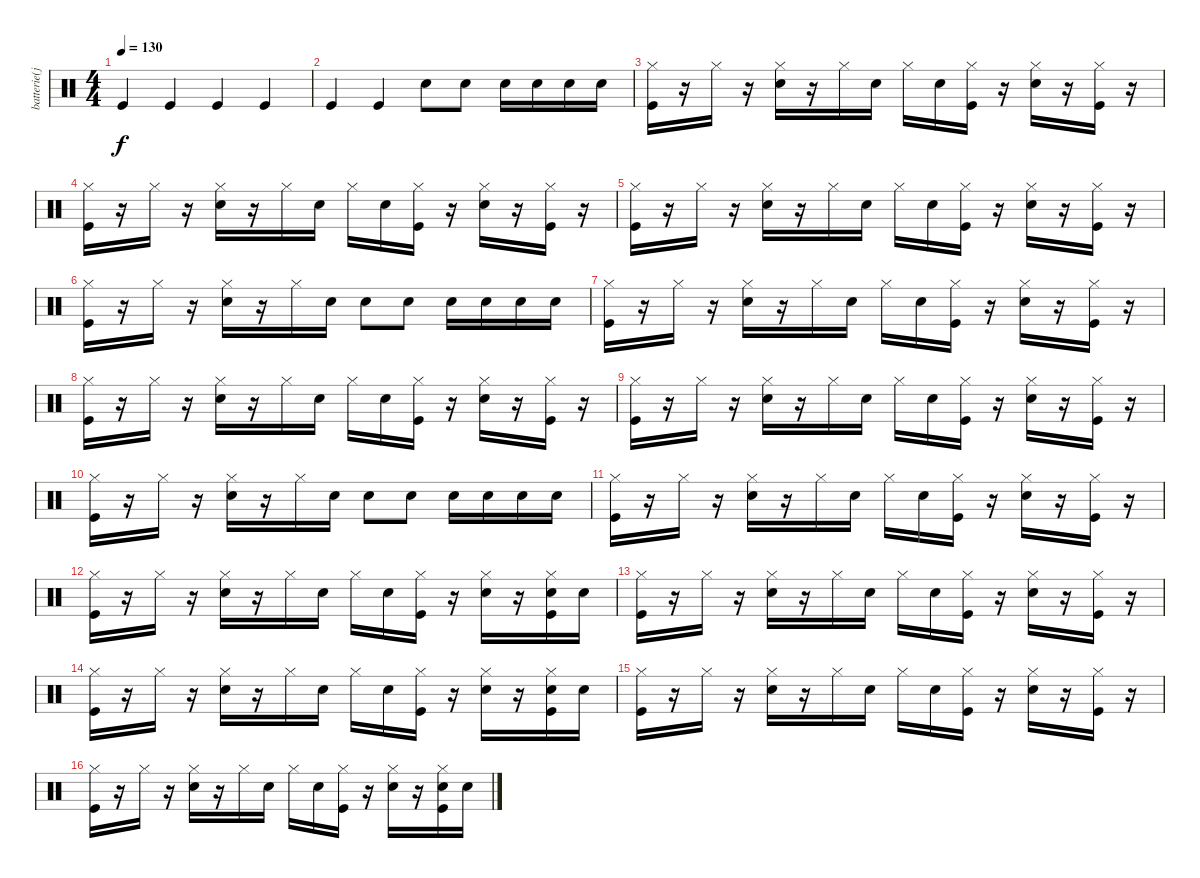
\track ("batterie(joost)" "batterie(j") {instrument percussion}
\staff {score}
\articulation defaults
\ts (4 4)
\tempo 130
\clef neutral
\ks c "Kick (hit)".4{dy f} "Kick (hit)".4 "Kick (hit)".4 "Kick (hit)".4
|
"Kick (hit)".4 "Kick (hit)".4 "Snare (hit) 2".8 "Snare (hit) 2".8 "Snare (hit) 2".16 "Snare (hit) 2".16 "Snare (hit) 2".16 "Snare (hit) 2".16 |
("Hi-Hat (closed)" "Kick (hit)").16 r.16 "Hi-Hat (closed)".16 r.16 ("Hi-Hat (closed)" "Snare (hit) 2").16 r.16 "Hi-Hat (closed)".16 "Snare (hit) 2".16 "Hi-Hat (closed)".16 "Snare (hit) 2".16 ("Hi-Hat (closed)" "Kick (hit)").16 r.16 ("Hi-Hat (closed)" "Snare (hit) 2").16 r.16 ("Hi-Hat (closed)" "Kick (hit)").16 r.16 |
("Hi-Hat (closed)" "Kick (hit)").16 r.16 "Hi-Hat (closed)".16 r.16 ("Hi-Hat (closed)" "Snare (hit) 2").16 r.16 "Hi-Hat (closed)".16 "Snare (hit) 2".16 "Hi-Hat (closed)".16 "Snare (hit) 2".16 ("Hi-Hat (closed)" "Kick (hit)").16 r.16 ("Hi-Hat (closed)" "Snare (hit) 2").16 r.16 ("Hi-Hat (closed)" "Kick (hit)").16 r.16 |
("Hi-Hat (closed)" "Kick (hit)").16 r.16 "Hi-Hat (closed)".16 r.16 ("Hi-Hat (closed)" "Snare (hit) 2").16 r.16 "Hi-Hat (closed)".16 "Snare (hit) 2".16 "Hi-Hat (closed)".16 "Snare (hit) 2".16 ("Hi-Hat (closed)" "Kick (hit)").16 r.16 ("Hi-Hat (closed)" "Snare (hit) 2").16 r.16 ("Hi-Hat (closed)" "Kick (hit)").16 r.16 |
("Hi-Hat (closed)" "Kick (hit)").16 r.16 "Hi-Hat (closed)".16 r.16 ("Hi-Hat (closed)" "Snare (hit) 2").16 r.16 "Hi-Hat (closed)".16 "Snare (hit) 2".16 "Snare (hit) 2".8 "Snare (hit) 2".8 "Snare (hit) 2".16 "Snare (hit) 2".16 "Snare (hit) 2".16 "Snare (hit) 2".16 |
("Hi-Hat (closed)" "Kick (hit)").16 r.16 "Hi-Hat (closed)".16 r.16 ("Hi-Hat (closed)" "Snare (hit) 2").16 r.16 "Hi-Hat (closed)".16 "Snare (hit) 2".16 "Hi-Hat (closed)".16 "Snare (hit) 2".16 ("Hi-Hat (closed)" "Kick (hit)").16 r.16 ("Hi-Hat (closed)" "Snare (hit) 2").16 r.16 ("Hi-Hat (closed)" "Kick (hit)").16 r.16 |
("Hi-Hat (closed)" "Kick (hit)").16 r.16 "Hi-Hat (closed)".16 r.16 ("Hi-Hat (closed)" "Snare (hit) 2").16 r.16 "Hi-Hat (closed)".16 "Snare (hit) 2".16 "Hi-Hat (closed)".16 "Snare (hit) 2".16 ("Hi-Hat (closed)" "Kick (hit)").16 r.16 ("Hi-Hat (closed)" "Snare (hit) 2").16 r.16 ("Hi-Hat (closed)" "Kick (hit)").16 r.16 |
("Hi-Hat (closed)" "Kick (hit)").16 r.16 "Hi-Hat (closed)".16 r.16 ("Hi-Hat (closed)" "Snare (hit) 2").16 r.16 "Hi-Hat (closed)".16 "Snare (hit) 2".16 "Hi-Hat (closed)".16 "Snare (hit) 2".16 ("Hi-Hat (closed)" "Kick (hit)").16 r.16 ("Hi-Hat (closed)" "Snare (hit) 2").16 r.16 ("Hi-Hat (closed)" "Kick (hit)").16 r.16 |
("Hi-Hat (closed)" "Kick (hit)").16 r.16 "Hi-Hat (closed)".16 r.16 ("Hi-Hat (closed)" "Snare (hit) 2").16 r.16 "Hi-Hat (closed)".16 "Snare (hit) 2".16 "Snare (hit) 2".8 "Snare (hit) 2".8 "Snare (hit) 2".16 "Snare (hit) 2".16 "Snare (hit) 2".16 "Snare (hit) 2".16 |
("Hi-Hat (closed)" "Kick (hit)").16 r.16 "Hi-Hat (closed)".16 r.16 ("Hi-Hat (closed)" "Snare (hit) 2").16 r.16 "Hi-Hat (closed)".16 "Snare (hit) 2".16 "Hi-Hat (closed)".16 "Snare (hit) 2".16 ("Hi-Hat (closed)" "Kick (hit)").16 r.16 ("Hi-Hat (closed)" "Snare (hit) 2").16 r.16 ("Hi-Hat (closed)" "Kick (hit)").16 r.16 |
("Hi-Hat (closed)" "Kick (hit)").16 r.16 "Hi-Hat (closed)".16 r.16 ("Hi-Hat (closed)" "Snare (hit) 2").16 r.16 "Hi-Hat (closed)".16 "Snare (hit) 2".16 "Hi-Hat (closed)".16 "Snare (hit) 2".16 ("Hi-Hat (closed)" "Kick (hit)").16 r.16 ("Hi-Hat (closed)" "Snare (hit) 2").16 r.16 ("Hi-Hat (closed)" "Snare (hit) 2" "Kick (hit)").16 "Snare (hit) 2".16 |
("Hi-Hat (closed)" "Kick (hit)").16 r.16 "Hi-Hat (closed)".16 r.16 ("Hi-Hat (closed)" "Snare (hit) 2").16 r.16 "Hi-Hat (closed)".16 "Snare (hit) 2".16 "Hi-Hat (closed)".16 "Snare (hit) 2".16 ("Hi-Hat (closed)" "Kick (hit)").16 r.16 ("Hi-Hat (closed)" "Snare (hit) 2").16 r.16 ("Hi-Hat (closed)" "Kick (hit)").16 r.16 |
("Hi-Hat (closed)" "Kick (hit)").16 r.16 "Hi-Hat (closed)".16 r.16 ("Hi-Hat (closed)" "Snare (hit) 2").16 r.16 "Hi-Hat (closed)".16 "Snare (hit) 2".16 "Hi-Hat (closed)".16 "Snare (hit) 2".16 ("Hi-Hat (closed)" "Kick (hit)").16 r.16 ("Hi-Hat (closed)" "Snare (hit) 2").16 r.16 ("Hi-Hat (closed)" "Snare (hit) 2" "Kick (hit)").16 "Snare (hit) 2".16 |
("Hi-Hat (closed)" "Kick (hit)").16 r.16 "Hi-Hat (closed)".16 r.16 ("Hi-Hat (closed)" "Snare (hit) 2").16 r.16 "Hi-Hat (closed)".16 "Snare (hit) 2".16 "Hi-Hat (closed)".16 "Snare (hit) 2".16 ("Hi-Hat (closed)" "Kick (hit)").16 r.16 ("Hi-Hat (closed)" "Snare (hit) 2").16 r.16 ("Hi-Hat (closed)" "Kick (hit)").16 r.16 |
("Hi-Hat (closed)" "Kick (hit)").16 r.16 "Hi-Hat (closed)".16 r.16 ("Hi-Hat (closed)" "Snare (hit) 2").16 r.16 "Hi-Hat (closed)".16 "Snare (hit) 2".16 "Hi-Hat (closed)".16 "Snare (hit) 2".16 ("Hi-Hat (closed)" "Kick (hit)").16 r.16 ("Hi-Hat (closed)" "Snare (hit) 2").16 r.16 ("Hi-Hat (closed)" "Snare (hit) 2" "Kick (hit)").16 "Snare (hit) 2".16
